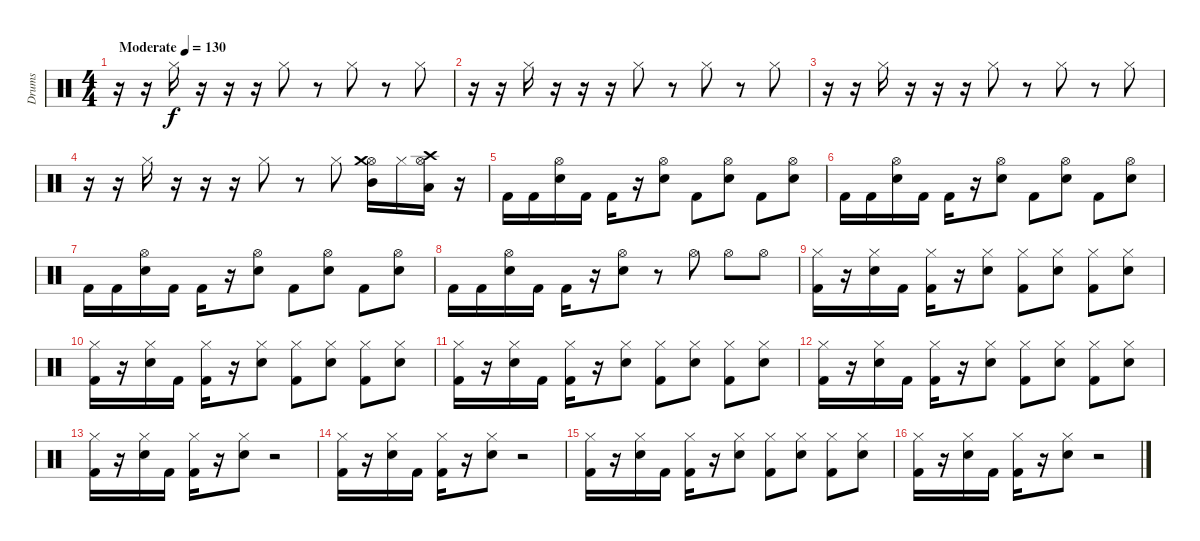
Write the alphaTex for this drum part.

\track ("Drums" "Drums") {instrument percussion}
\staff {score}
\articulation defaults
\ts (4 4)
\tempo (130 "Moderate")
\clef neutral
\ks c
r.16{dy f} r.16 "Hi-Hat (closed)".16 r.16 r.16 r.16 "Hi-Hat (closed)".8 r.8 "Hi-Hat (closed)".8 r.8 "Hi-Hat (closed)".8 |
r.16 r.16 "Hi-Hat (closed)".16 r.16 r.16 r.16 "Hi-Hat (closed)".8 r.8 "Hi-Hat (closed)".8 r.8 "Hi-Hat (closed)".8 |
r.16 r.16 "Hi-Hat (closed)".16 r.16 r.16 r.16 "Hi-Hat (closed)".8 r.8 "Hi-Hat (closed)".8 r.8 "Hi-Hat (closed)".8 |
r.16 r.16 "Hi-Hat (closed)".16 r.16 r.16 r.16 "Hi-Hat (closed)".8 r.8 "Hi-Hat (closed)".8 ("Hi-Hat (open)" "Crash medium (hit)" "Mid Tom (hit)").16 "Hi-Hat (closed)".16 ("Crash high (hit)" "Low Tom (hit)" "Hi-Hat (open)").16 r.16 |
"Kick (hit) 2".16 "Kick (hit) 2".16 ("Snare (hit) 2" "Hi-Hat (open)").16 "Kick (hit) 2".16 "Kick (hit) 2".16 r.16 ("Snare (hit) 2" "Hi-Hat (open)").8 "Kick (hit) 2".8 ("Snare (hit) 2" "Hi-Hat (open)").8 "Kick (hit) 2".8 ("Snare (hit) 2" "Hi-Hat (open)").8 |
"Kick (hit) 2".16 "Kick (hit) 2".16 ("Snare (hit) 2" "Hi-Hat (open)").16 "Kick (hit) 2".16 "Kick (hit) 2".16 r.16 ("Snare (hit) 2" "Hi-Hat (open)").8 "Kick (hit) 2".8 ("Snare (hit) 2" "Hi-Hat (open)").8 "Kick (hit) 2".8 ("Snare (hit) 2" "Hi-Hat (open)").8 |
"Kick (hit) 2".16 "Kick (hit) 2".16 ("Snare (hit) 2" "Hi-Hat (open)").16 "Kick (hit) 2".16 "Kick (hit) 2".16 r.16 ("Snare (hit) 2" "Hi-Hat (open)").8 "Kick (hit) 2".8 ("Snare (hit) 2" "Hi-Hat (open)").8 "Kick (hit) 2".8 ("Snare (hit) 2" "Hi-Hat (open)").8 |
"Kick (hit) 2".16 "Kick (hit) 2".16 ("Snare (hit) 2" "Hi-Hat (open)").16 "Kick (hit) 2".16 "Kick (hit) 2".16 r.16 ("Snare (hit) 2" "Hi-Hat (open)").8 r.8 "Hi-Hat (open)".8 "Hi-Hat (open)".8 "Hi-Hat (open)".8 |
("Kick (hit) 2" "Hi-Hat (closed)").16 r.16 ("Snare (hit) 2" "Hi-Hat (closed)").16 "Kick (hit) 2".16 ("Kick (hit) 2" "Hi-Hat (closed)").16 r.16 ("Snare (hit) 2" "Hi-Hat (closed)").8 ("Kick (hit) 2" "Hi-Hat (closed)").8 ("Snare (hit) 2" "Hi-Hat (closed)").8 ("Kick (hit) 2" "Hi-Hat (closed)").8 ("Snare (hit) 2" "Hi-Hat (closed)").8 |
("Kick (hit) 2" "Hi-Hat (closed)").16 r.16 ("Snare (hit) 2" "Hi-Hat (closed)").16 "Kick (hit) 2".16 ("Kick (hit) 2" "Hi-Hat (closed)").16 r.16 ("Snare (hit) 2" "Hi-Hat (closed)").8 ("Kick (hit) 2" "Hi-Hat (closed)").8 ("Snare (hit) 2" "Hi-Hat (closed)").8 ("Kick (hit) 2" "Hi-Hat (closed)").8 ("Snare (hit) 2" "Hi-Hat (closed)").8 |
("Kick (hit) 2" "Hi-Hat (closed)").16 r.16 ("Snare (hit) 2" "Hi-Hat (closed)").16 "Kick (hit) 2".16 ("Kick (hit) 2" "Hi-Hat (closed)").16 r.16 ("Snare (hit) 2" "Hi-Hat (closed)").8 ("Kick (hit) 2" "Hi-Hat (closed)").8 ("Snare (hit) 2" "Hi-Hat (closed)").8 ("Kick (hit) 2" "Hi-Hat (closed)").8 ("Snare (hit) 2" "Hi-Hat (closed)").8 |
("Kick (hit) 2" "Hi-Hat (closed)").16 r.16 ("Snare (hit) 2" "Hi-Hat (closed)").16 "Kick (hit) 2".16 ("Kick (hit) 2" "Hi-Hat (closed)").16 r.16 ("Snare (hit) 2" "Hi-Hat (closed)").8 ("Kick (hit) 2" "Hi-Hat (closed)").8 ("Snare (hit) 2" "Hi-Hat (closed)").8 ("Kick (hit) 2" "Hi-Hat (closed)").8 ("Snare (hit) 2" "Hi-Hat (closed)").8 |
("Kick (hit) 2" "Hi-Hat (closed)").16 r.16 ("Snare (hit) 2" "Hi-Hat (closed)").16 "Kick (hit) 2".16 ("Kick (hit) 2" "Hi-Hat (closed)").16 r.16 ("Snare (hit) 2" "Hi-Hat (closed)").8 r.2 |
("Kick (hit) 2" "Hi-Hat (closed)").16 r.16 ("Snare (hit) 2" "Hi-Hat (closed)").16 "Kick (hit) 2".16 ("Kick (hit) 2" "Hi-Hat (closed)").16 r.16 ("Snare (hit) 2" "Hi-Hat (closed)").8 r.2 |
("Kick (hit) 2" "Hi-Hat (closed)").16 r.16 ("Snare (hit) 2" "Hi-Hat (closed)").16 "Kick (hit) 2".16 ("Kick (hit) 2" "Hi-Hat (closed)").16 r.16 ("Snare (hit) 2" "Hi-Hat (closed)").8 ("Kick (hit) 2" "Hi-Hat (closed)").8 ("Snare (hit) 2" "Hi-Hat (closed)").8 ("Kick (hit) 2" "Hi-Hat (closed)").8 ("Snare (hit) 2" "Hi-Hat (closed)").8 |
("Kick (hit) 2" "Hi-Hat (closed)").16 r.16 ("Snare (hit) 2" "Hi-Hat (closed)").16 "Kick (hit) 2".16 ("Kick (hit) 2" "Hi-Hat (closed)").16 r.16 ("Snare (hit) 2" "Hi-Hat (closed)").8 r.2
